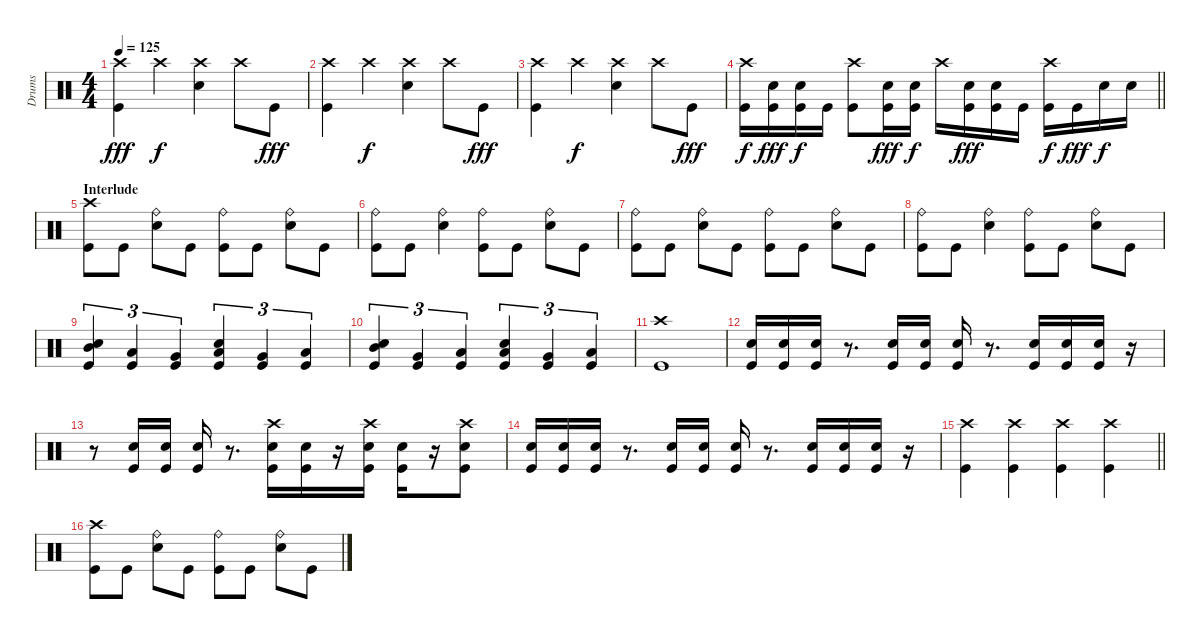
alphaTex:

\track ("Drums" "Drums") {instrument percussion}
\staff {score}
\articulation defaults
\ts (4 4)
\tempo 125
\clef neutral
\ks c
("Crash high (hit)" "Kick (hit)").4{dy fff} "Crash high (hit)".4{dy f} ("Crash high (hit)" "Electric Snare (hit)").4 "Crash high (hit)".8 "Kick (hit)".8{dy fff} |
("Crash high (hit)" "Kick (hit)").4 "Crash high (hit)".4{dy f} ("Crash high (hit)" "Electric Snare (hit)").4 "Crash high (hit)".8 "Kick (hit)".8{dy fff} |
("Crash high (hit)" "Kick (hit)").4 "Crash high (hit)".4{dy f} ("Crash high (hit)" "Electric Snare (hit)").4 "Crash high (hit)".8 "Kick (hit)".8{dy fff} |
\barLineRight lightlight
("Crash high (hit)" "Kick (hit)").16{dy f} ("Electric Snare (hit)" "Kick (hit)").16{dy fff} ("Electric Snare (hit)" "Kick (hit)").16{dy f} "Kick (hit)".16 ("Crash high (hit)" "Kick (hit)").8 ("Electric Snare (hit)" "Kick (hit)").16{dy fff} ("Electric Snare (hit)" "Kick (hit)").16{dy f} "Crash high (hit)".16 ("Electric Snare (hit)" "Kick (hit)").16{dy fff} ("Electric Snare (hit)" "Kick (hit)").16 "Kick (hit)".16 ("Crash high (hit)" "Kick (hit)").16{dy f} "Kick (hit)".16{dy fff} "Electric Snare (hit)".16{dy f} "Electric Snare (hit)".16 |
\section ("" "Interlude")
("Crash high (hit)" "Kick (hit)").8 "Kick (hit)".8 ("Ride (bell)" "Electric Snare (hit)").8 "Kick (hit)".8 ("Ride (bell)" "Kick (hit)").8 "Kick (hit)".8 ("Ride (bell)" "Electric Snare (hit)").8 "Kick (hit)".8 |
("Ride (bell)" "Kick (hit)").8 "Kick (hit)".8 ("Ride (bell)" "Electric Snare (hit)").4 ("Ride (bell)" "Kick (hit)").8 "Kick (hit)".8 ("Ride (bell)" "Electric Snare (hit)").8 "Kick (hit)".8 |
("Ride (bell)" "Kick (hit)").8 "Kick (hit)".8 ("Ride (bell)" "Electric Snare (hit)").8 "Kick (hit)".8 ("Ride (bell)" "Kick (hit)").8 "Kick (hit)".8 ("Ride (bell)" "Electric Snare (hit)").8 "Kick (hit)".8 |
("Ride (bell)" "Kick (hit)").8 "Kick (hit)".8 ("Ride (bell)" "Electric Snare (hit)").4 ("Ride (bell)" "Kick (hit)").8 "Kick (hit)".8 ("Ride (bell)" "Electric Snare (hit)").8 "Kick (hit)".8 |
("Mid Tom (hit)" "Electric Snare (hit)" "Kick (hit)").4{tu (3 2)} ("Low Tom (hit)" "Kick (hit)").4{tu (3 2)} ("Very Low Tom (hit)" "Kick (hit)").4{tu (3 2)} ("Low Floor Tom (hit)" "Electric Snare (hit)" "Kick (hit)").4{tu (3 2)} ("Very Low Tom (hit)" "Kick (hit)").4{tu (3 2)} ("Low Tom (hit)" "Kick (hit)").4{tu (3 2)} |
("Mid Tom (hit)" "Electric Snare (hit)" "Kick (hit)").4{tu (3 2)} ("Very Low Tom (hit)" "Kick (hit)").4{tu (3 2)} ("Low Floor Tom (hit)" "Kick (hit)").4{tu (3 2)} ("Low Floor Tom (hit)" "Electric Snare (hit)" "Kick (hit)").4{tu (3 2)} ("Very Low Tom (hit)" "Kick (hit)").4{tu (3 2)} ("Low Tom (hit)" "Kick (hit)").4{tu (3 2)} |
("Crash high (hit)" "Kick (hit)").1 |
("Electric Snare (hit)" "Kick (hit)").16 ("Electric Snare (hit)" "Kick (hit)").16 ("Electric Snare (hit)" "Kick (hit)").16 r.8{d} ("Electric Snare (hit)" "Kick (hit)").16 ("Electric Snare (hit)" "Kick (hit)").16 ("Electric Snare (hit)" "Kick (hit)").16 r.8{d} ("Electric Snare (hit)" "Kick (hit)").16 ("Electric Snare (hit)" "Kick (hit)").16 ("Electric Snare (hit)" "Kick (hit)").16 r.16 |
r.8 ("Electric Snare (hit)" "Kick (hit)").16 ("Electric Snare (hit)" "Kick (hit)").16 ("Electric Snare (hit)" "Kick (hit)").16 r.8{d} ("Crash high (hit)" "Electric Snare (hit)" "Kick (hit)").16 ("Electric Snare (hit)" "Kick (hit)").16 r.16 ("Crash high (hit)" "Electric Snare (hit)" "Kick (hit)").16 ("Electric Snare (hit)" "Kick (hit)").16 r.16 ("Crash high (hit)" "Electric Snare (hit)" "Kick (hit)").8 |
("Electric Snare (hit)" "Kick (hit)").16 ("Electric Snare (hit)" "Kick (hit)").16 ("Electric Snare (hit)" "Kick (hit)").16 r.8{d} ("Electric Snare (hit)" "Kick (hit)").16 ("Electric Snare (hit)" "Kick (hit)").16 ("Electric Snare (hit)" "Kick (hit)").16 r.8{d} ("Electric Snare (hit)" "Kick (hit)").16 ("Electric Snare (hit)" "Kick (hit)").16 ("Electric Snare (hit)" "Kick (hit)").16 r.16 |
\barLineRight lightlight
("Crash high (hit)" "Kick (hit)").4 ("Crash high (hit)" "Kick (hit)").4 ("Crash high (hit)" "Kick (hit)").4 ("Crash high (hit)" "Kick (hit)").4 |
\section ("" "")
("Crash high (hit)" "Kick (hit)").8 "Kick (hit)".8 ("Ride (bell)" "Electric Snare (hit)").8 "Kick (hit)".8 ("Ride (bell)" "Kick (hit)").8 "Kick (hit)".8 ("Ride (bell)" "Electric Snare (hit)").8 "Kick (hit)".8
